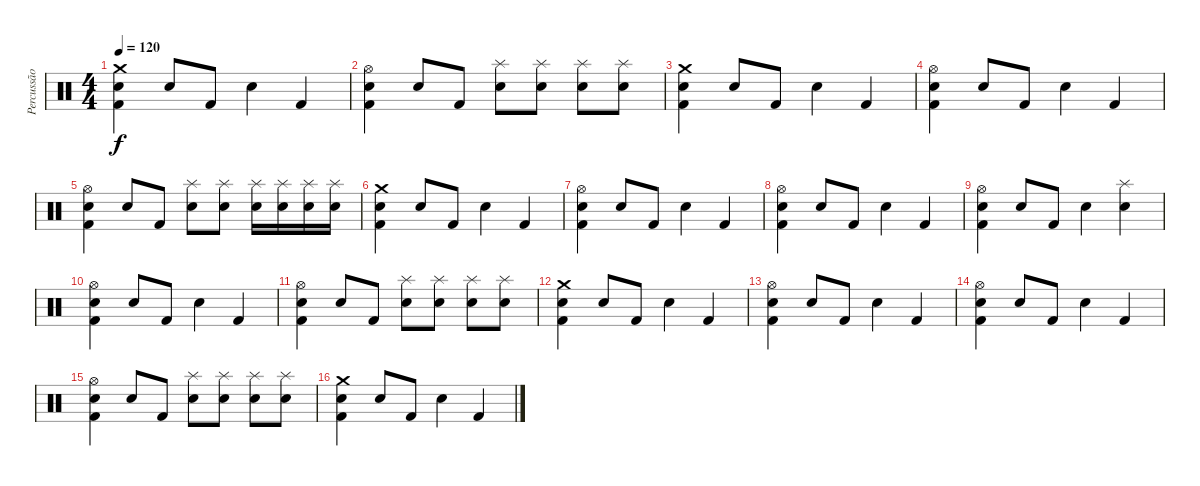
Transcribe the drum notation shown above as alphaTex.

\track ("Percussão" "Percussão") {instrument percussion}
\staff {score}
\articulation defaults
\ts (4 4)
\tempo 120
\clef neutral
\ks c
("Crash medium (hit)" "Kick (hit) 2" "Snare (hit) 2").4{dy f} "Snare (hit) 2".8 "Kick (hit) 2".8 "Snare (hit) 2".4 "Kick (hit) 2".4 |
("Hi-Hat (open)" "Kick (hit) 2" "Snare (hit) 2").4 "Snare (hit) 2".8 "Kick (hit) 2".8 ("Splash (hit)" "Snare (hit) 2").8 ("Splash (hit)" "Snare (hit) 2").8 ("Splash (hit)" "Snare (hit) 2").8 ("Splash (hit)" "Snare (hit) 2").8 |
("Crash medium (hit)" "Kick (hit) 2" "Snare (hit) 2").4 "Snare (hit) 2".8 "Kick (hit) 2".8 "Snare (hit) 2".4 "Kick (hit) 2".4 |
("Hi-Hat (open)" "Kick (hit) 2" "Snare (hit) 2").4 "Snare (hit) 2".8 "Kick (hit) 2".8 "Snare (hit) 2".4 "Kick (hit) 2".4 |
("Hi-Hat (open)" "Kick (hit) 2" "Snare (hit) 2").4 "Snare (hit) 2".8 "Kick (hit) 2".8 ("Splash (hit)" "Snare (hit) 2").8 ("Splash (hit)" "Snare (hit) 2").8 ("Splash (hit)" "Snare (hit) 2").16 ("Splash (hit)" "Snare (hit) 2").16 ("Splash (hit)" "Snare (hit) 2").16 ("Splash (hit)" "Snare (hit) 2").16 |
("Crash medium (hit)" "Kick (hit) 2" "Snare (hit) 2").4 "Snare (hit) 2".8 "Kick (hit) 2".8 "Snare (hit) 2".4 "Kick (hit) 2".4 |
("Hi-Hat (open)" "Kick (hit) 2" "Snare (hit) 2").4 "Snare (hit) 2".8 "Kick (hit) 2".8 "Snare (hit) 2".4 "Kick (hit) 2".4 |
("Hi-Hat (open)" "Kick (hit) 2" "Snare (hit) 2").4 "Snare (hit) 2".8 "Kick (hit) 2".8 "Snare (hit) 2".4 "Kick (hit) 2".4 |
("Hi-Hat (open)" "Kick (hit) 2" "Snare (hit) 2").4 "Snare (hit) 2".8 "Kick (hit) 2".8 "Snare (hit) 2".4 ("Splash (hit)" "Snare (hit) 2").4 |
("Hi-Hat (open)" "Kick (hit) 2" "Snare (hit) 2").4 "Snare (hit) 2".8 "Kick (hit) 2".8 "Snare (hit) 2".4 "Kick (hit) 2".4 |
("Hi-Hat (open)" "Kick (hit) 2" "Snare (hit) 2").4 "Snare (hit) 2".8 "Kick (hit) 2".8 ("Splash (hit)" "Snare (hit) 2").8 ("Splash (hit)" "Snare (hit) 2").8 ("Splash (hit)" "Snare (hit) 2").8 ("Splash (hit)" "Snare (hit) 2").8 |
("Crash medium (hit)" "Kick (hit) 2" "Snare (hit) 2").4 "Snare (hit) 2".8 "Kick (hit) 2".8 "Snare (hit) 2".4 "Kick (hit) 2".4 |
("Hi-Hat (open)" "Kick (hit) 2" "Snare (hit) 2").4 "Snare (hit) 2".8 "Kick (hit) 2".8 "Snare (hit) 2".4 "Kick (hit) 2".4 |
("Hi-Hat (open)" "Kick (hit) 2" "Snare (hit) 2").4 "Snare (hit) 2".8 "Kick (hit) 2".8 "Snare (hit) 2".4 "Kick (hit) 2".4 |
("Hi-Hat (open)" "Kick (hit) 2" "Snare (hit) 2").4 "Snare (hit) 2".8 "Kick (hit) 2".8 ("Splash (hit)" "Snare (hit) 2").8 ("Splash (hit)" "Snare (hit) 2").8 ("Splash (hit)" "Snare (hit) 2").8 ("Splash (hit)" "Snare (hit) 2").8 |
("Crash medium (hit)" "Kick (hit) 2" "Snare (hit) 2").4 "Snare (hit) 2".8 "Kick (hit) 2".8 "Snare (hit) 2".4 "Kick (hit) 2".4
